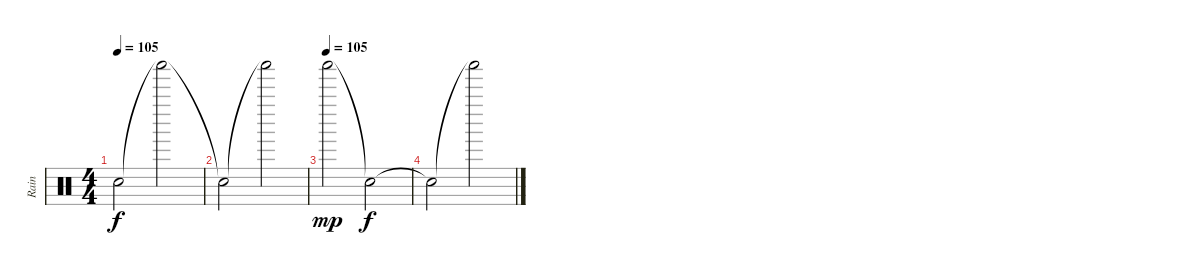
\track ("Rain" "Rain") {instrument percussion}
\staff {score}
\articulation defaults
\ts (4 4)
\tempo 105
\clef neutral
\ks c "Snare (hit)"{t}.2{dy f} "Shaker (hit)"{t}.2
|
"Snare (hit)"{t}.2 "Shaker (hit)"{t}.2 |
\tempo (105)
"Shaker (hit)".2{dy mp} "Snare (hit)"{t}.2{dy f} |
"Snare (hit)"{t}.2 "Shaker (hit)"{t}.2
